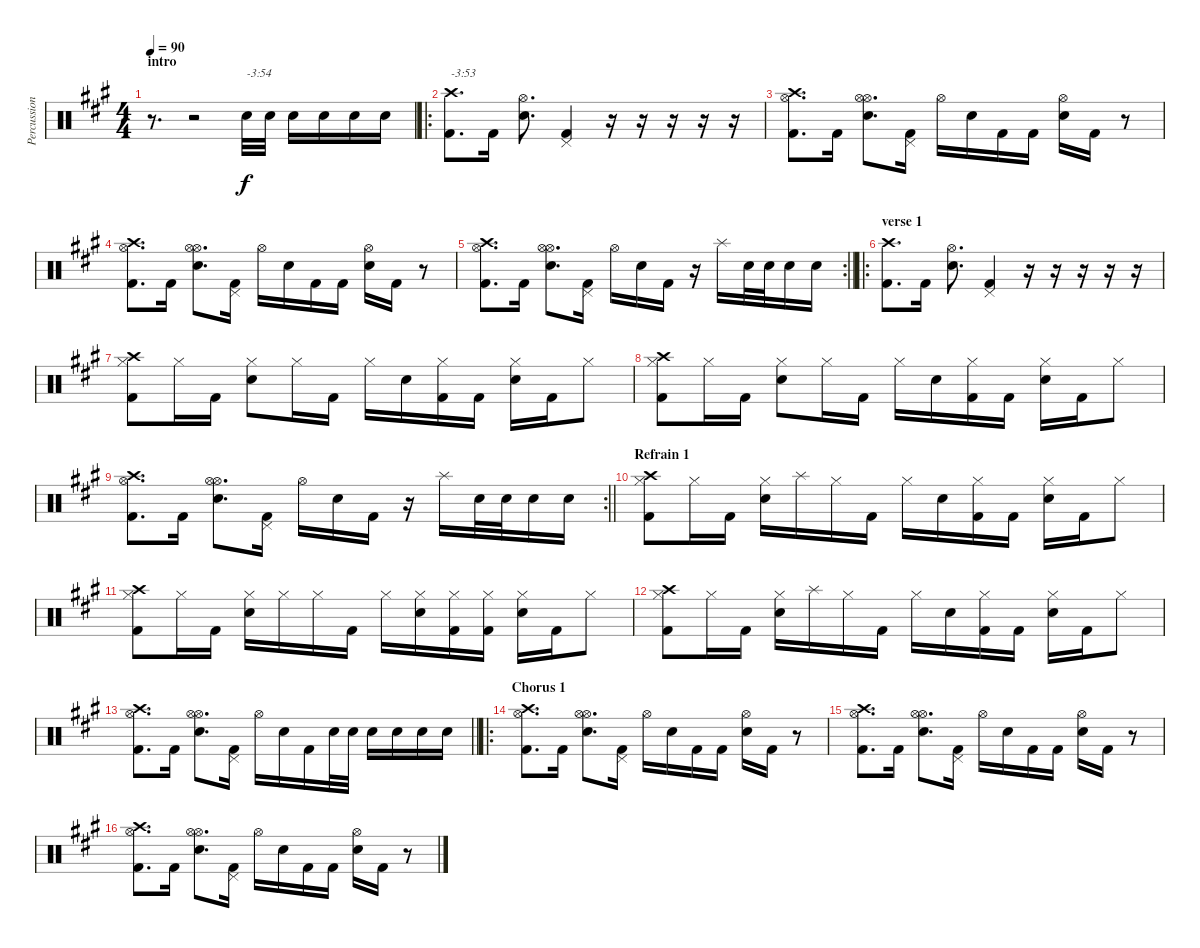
\track ("Percussion" "Percussion") {instrument percussion}
\staff {score}
\articulation defaults
\ts (4 4)
\section ("" "intro")
\tempo 90
\clef neutral
\ks a
r.8{d dy f} r.2 "Electric Snare (hit)".32{txt "-3:54"} "Electric Snare (hit)".32 "Electric Snare (hit)".16 "Electric Snare (hit)".16 "Electric Snare (hit)".16 "Electric Snare (hit)".16 |
\ro
("Crash high (hit)" "Kick (hit) 2").8{d txt "-3:53"} "Kick (hit) 2".16 ("Electric Snare (hit)" "Hi-Hat (open)").8{d} ("Pedal Hi-Hat (hit)" "Kick (hit) 2").4 r.16 r.16 r.16 r.16 r.16 |
("Hi-Hat (open)" "Crash high (hit)" "Kick (hit) 2").8{d} "Kick (hit) 2".16 ("Hi-Hat (open)" "Electric Snare (hit)" "Hi-Hat (open)").8{d} ("Pedal Hi-Hat (hit)" "Kick (hit) 2").16 "Hi-Hat (open)".16 "Electric Snare (hit)".16 "Kick (hit) 2".16 "Kick (hit) 2".16 ("Hi-Hat (open)" "Electric Snare (hit)").16 "Kick (hit) 2".16 r.8 |
("Hi-Hat (open)" "Crash high (hit)" "Kick (hit) 2").8{d} "Kick (hit) 2".16 ("Hi-Hat (open)" "Electric Snare (hit)" "Hi-Hat (open)").8{d} ("Pedal Hi-Hat (hit)" "Kick (hit) 2").16 "Hi-Hat (open)".16 "Electric Snare (hit)".16 "Kick (hit) 2".16 "Kick (hit) 2".16 ("Hi-Hat (open)" "Electric Snare (hit)").16 "Kick (hit) 2".16 r.8 |
\rc 2
\barLineRight lightlight
("Hi-Hat (open)" "Crash high (hit)" "Kick (hit) 2").8{d} "Kick (hit) 2".16 ("Hi-Hat (open)" "Electric Snare (hit)" "Hi-Hat (open)").8{d} ("Pedal Hi-Hat (hit)" "Kick (hit) 2").16 "Hi-Hat (open)".16 "Electric Snare (hit)".16 "Kick (hit) 2".16 r.16 "Splash (hit)".16 "Electric Snare (hit)".32 "Electric Snare (hit)".32 "Electric Snare (hit)".16 "Electric Snare (hit)".16 |
\ro
\section ("" "verse 1")
("Crash high (hit)" "Kick (hit) 2").8{d} "Kick (hit) 2".16 ("Electric Snare (hit)" "Hi-Hat (open)").8{d} ("Pedal Hi-Hat (hit)" "Kick (hit) 2").4 r.16 r.16 r.16 r.16 r.16 |
("Hi-Hat (closed)" "Crash high (hit)" "Kick (hit) 2").8 "Hi-Hat (closed)".16 "Kick (hit) 2".16 ("Hi-Hat (closed)" "Electric Snare (hit)").8 "Hi-Hat (closed)".16 "Kick (hit) 2".16 "Hi-Hat (closed)".16 "Electric Snare (hit)".16 ("Hi-Hat (closed)" "Kick (hit) 2").16 "Kick (hit) 2".16 ("Hi-Hat (closed)" "Electric Snare (hit)").16 "Kick (hit) 2".16 "Hi-Hat (closed)".8 |
("Hi-Hat (closed)" "Crash high (hit)" "Kick (hit) 2").8 "Hi-Hat (closed)".16 "Kick (hit) 2".16 ("Hi-Hat (closed)" "Electric Snare (hit)").8 "Hi-Hat (closed)".16 "Kick (hit) 2".16 "Hi-Hat (closed)".16 "Electric Snare (hit)".16 ("Hi-Hat (closed)" "Kick (hit) 2").16 "Kick (hit) 2".16 ("Hi-Hat (closed)" "Electric Snare (hit)").16 "Kick (hit) 2".16 "Hi-Hat (closed)".8 |
\rc 2
\barLineRight lightlight
("Hi-Hat (open)" "Crash high (hit)" "Kick (hit) 2").8{d} "Kick (hit) 2".16 ("Hi-Hat (open)" "Electric Snare (hit)" "Hi-Hat (open)").8{d} ("Pedal Hi-Hat (hit)" "Kick (hit) 2").16 "Hi-Hat (open)".16 "Electric Snare (hit)".16 "Kick (hit) 2".16 r.16 "Splash (hit)".16 "Electric Snare (hit)".32 "Electric Snare (hit)".32 "Electric Snare (hit)".16 "Electric Snare (hit)".16 |
\section ("" "Refrain 1")
("Hi-Hat (closed)" "Crash high (hit)" "Kick (hit) 2").8 "Hi-Hat (closed)".16 "Kick (hit) 2".16 ("Hi-Hat (closed)" "Electric Snare (hit)").16 "Splash (hit)".16 "Hi-Hat (closed)".16 "Kick (hit) 2".16 "Hi-Hat (closed)".16 "Electric Snare (hit)".16 ("Hi-Hat (closed)" "Kick (hit) 2").16 "Kick (hit) 2".16 ("Hi-Hat (closed)" "Electric Snare (hit)").16 "Kick (hit) 2".16 "Hi-Hat (closed)".8 |
("Hi-Hat (closed)" "Crash high (hit)" "Kick (hit) 2").8 "Hi-Hat (closed)".16 "Kick (hit) 2".16 ("Hi-Hat (closed)" "Electric Snare (hit)").16 "Hi-Hat (closed)".16 "Hi-Hat (closed)".16 "Kick (hit) 2".16 "Hi-Hat (closed)".16 ("Hi-Hat (closed)" "Electric Snare (hit)").16 ("Hi-Hat (closed)" "Kick (hit) 2").16 ("Hi-Hat (closed)" "Kick (hit) 2").16 ("Hi-Hat (closed)" "Electric Snare (hit)").16 "Kick (hit) 2".16 "Hi-Hat (closed)".8 |
("Hi-Hat (closed)" "Crash high (hit)" "Kick (hit) 2").8 "Hi-Hat (closed)".16 "Kick (hit) 2".16 ("Hi-Hat (closed)" "Electric Snare (hit)").16 "Splash (hit)".16 "Hi-Hat (closed)".16 "Kick (hit) 2".16 "Hi-Hat (closed)".16 "Electric Snare (hit)".16 ("Hi-Hat (closed)" "Kick (hit) 2").16 "Kick (hit) 2".16 ("Hi-Hat (closed)" "Electric Snare (hit)").16 "Kick (hit) 2".16 "Hi-Hat (closed)".8 |
\barLineRight lightlight
("Hi-Hat (open)" "Crash high (hit)" "Kick (hit) 2").8{d} "Kick (hit) 2".16 ("Hi-Hat (open)" "Electric Snare (hit)" "Hi-Hat (open)").8{d} ("Pedal Hi-Hat (hit)" "Kick (hit) 2").16 "Hi-Hat (open)".16 "Electric Snare (hit)".16 "Kick (hit) 2".16 "Electric Snare (hit)".32 "Electric Snare (hit)".32 "Electric Snare (hit)".16 "Electric Snare (hit)".16 "Electric Snare (hit)".16 "Electric Snare (hit)".16 |
\ro
\section ("" "Chorus 1")
("Hi-Hat (open)" "Crash high (hit)" "Kick (hit) 2").8{d} "Kick (hit) 2".16 ("Hi-Hat (open)" "Electric Snare (hit)" "Hi-Hat (open)").8{d} ("Pedal Hi-Hat (hit)" "Kick (hit) 2").16 "Hi-Hat (open)".16 "Electric Snare (hit)".16 "Kick (hit) 2".16 "Kick (hit) 2".16 ("Hi-Hat (open)" "Electric Snare (hit)").16 "Kick (hit) 2".16 r.8 |
("Hi-Hat (open)" "Crash high (hit)" "Kick (hit) 2").8{d} "Kick (hit) 2".16 ("Hi-Hat (open)" "Electric Snare (hit)" "Hi-Hat (open)").8{d} ("Pedal Hi-Hat (hit)" "Kick (hit) 2").16 "Hi-Hat (open)".16 "Electric Snare (hit)".16 "Kick (hit) 2".16 "Kick (hit) 2".16 ("Hi-Hat (open)" "Electric Snare (hit)").16 "Kick (hit) 2".16 r.8 |
("Hi-Hat (open)" "Crash high (hit)" "Kick (hit) 2").8{d} "Kick (hit) 2".16 ("Hi-Hat (open)" "Electric Snare (hit)" "Hi-Hat (open)").8{d} ("Pedal Hi-Hat (hit)" "Kick (hit) 2").16 "Hi-Hat (open)".16 "Electric Snare (hit)".16 "Kick (hit) 2".16 "Kick (hit) 2".16 ("Hi-Hat (open)" "Electric Snare (hit)").16 "Kick (hit) 2".16 r.8
